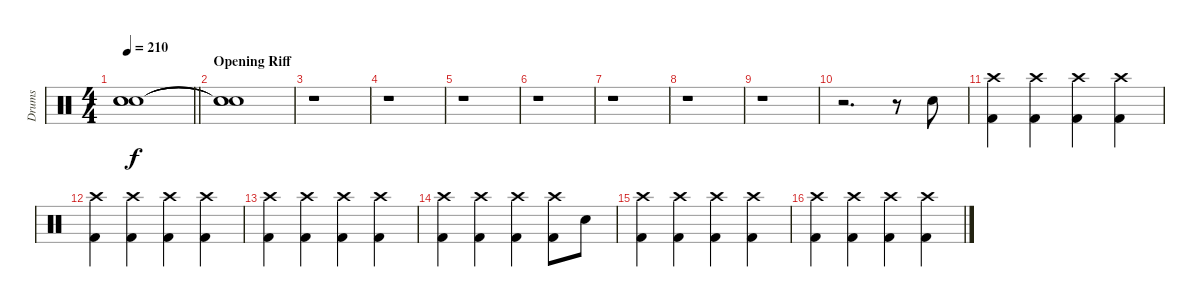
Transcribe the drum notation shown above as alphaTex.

\track ("Drums" "Drums") {instrument percussion}
\staff {score}
\articulation defaults
\ts (4 4)
\tempo 210
\clef neutral
\barLineRight lightlight
\ks c
("Snare (hit)"{t} "Snare (hit)"{t} "Snare (hit)"{t}).1{dy f} |
\section ("" "Opening Riff")
("Snare (hit)"{t} "Snare (hit)"{t} "Snare (hit)"{t}).1 |
r.1 |
r.1 |
r.1 |
r.1 |
r.1 |
r.1 |
r.1 |
r.2{d} r.8 "Snare (hit) 2".8 |
("Crash high (hit)" "Kick (hit) 2").4 ("Crash high (hit)" "Kick (hit) 2").4 ("Crash high (hit)" "Kick (hit) 2").4 ("Crash high (hit)" "Kick (hit) 2").4 |
("Crash high (hit)" "Kick (hit) 2").4 ("Crash high (hit)" "Kick (hit) 2").4 ("Crash high (hit)" "Kick (hit) 2").4 ("Crash high (hit)" "Kick (hit) 2").4 |
("Crash high (hit)" "Kick (hit) 2").4 ("Crash high (hit)" "Kick (hit) 2").4 ("Crash high (hit)" "Kick (hit) 2").4 ("Crash high (hit)" "Kick (hit) 2").4 |
("Crash high (hit)" "Kick (hit) 2").4 ("Crash high (hit)" "Kick (hit) 2").4 ("Crash high (hit)" "Kick (hit) 2").4 ("Crash high (hit)" "Kick (hit) 2").8 "Snare (hit) 2".8 |
("Crash high (hit)" "Kick (hit) 2").4 ("Crash high (hit)" "Kick (hit) 2").4 ("Crash high (hit)" "Kick (hit) 2").4 ("Crash high (hit)" "Kick (hit) 2").4 |
("Crash high (hit)" "Kick (hit) 2").4 ("Crash high (hit)" "Kick (hit) 2").4 ("Crash high (hit)" "Kick (hit) 2").4 ("Crash high (hit)" "Kick (hit) 2").4
